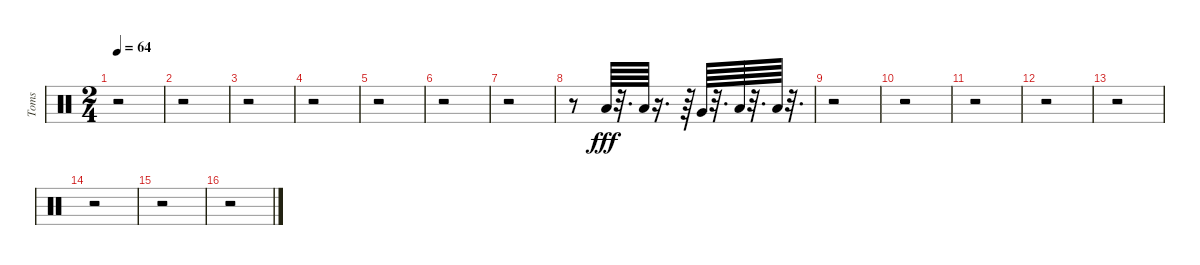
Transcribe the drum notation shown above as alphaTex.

\track ("Toms" "Toms") {instrument percussion}
\staff {score}
\articulation defaults
\ts (2 4)
\tempo 64
\clef neutral
\ks c
r.2{dy fff} |
r.2 |
r.2 |
r.2 |
r.2 |
r.2 |
r.2 |
r.8 "Low Tom (hit)".64 r.32{d} "Low Tom (hit)".64 r.16{d} r.64 "Very Low Tom (hit)".64 r.32{d} "Low Floor Tom (hit)".64 r.32{d} "Low Floor Tom (hit)".64 r.32{d} |
r.2 |
r.2 |
r.2 |
r.2 |
r.2 |
r.2 |
r.2 |
r.2
